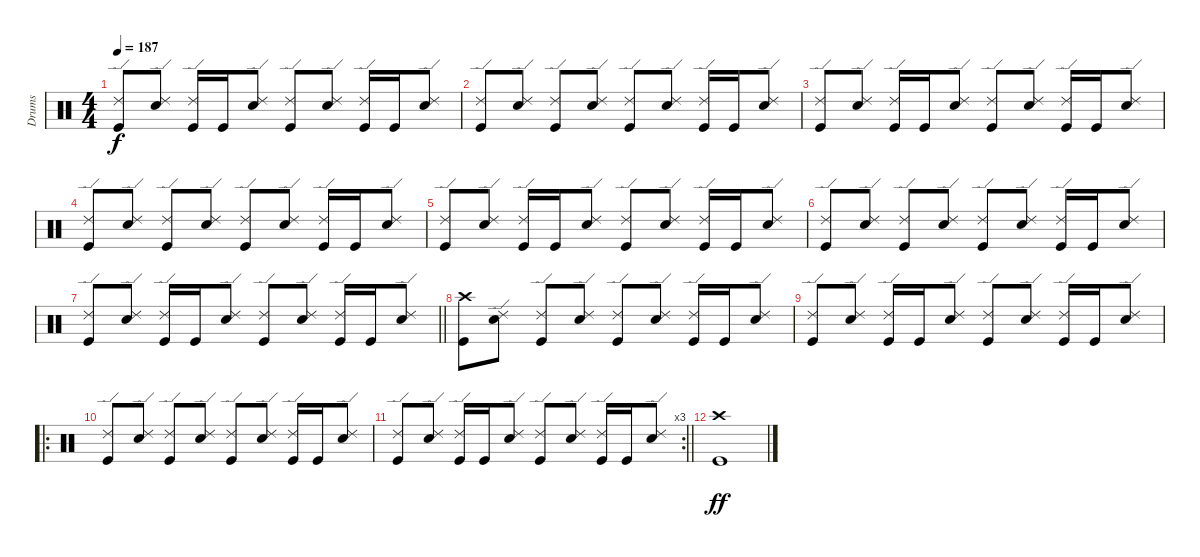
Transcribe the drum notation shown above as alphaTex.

\track ("Drums" "Drums") {instrument percussion}
\staff {score}
\articulation defaults
\ts (4 4)
\tempo 187
\clef neutral
\ks c
("Ride (edge) 2" "Kick (hit)").8{dy f} ("Ride (edge) 2" "Snare (hit) 2").8 ("Ride (edge) 2" "Kick (hit)").16 "Kick (hit)".16 ("Ride (edge) 2" "Snare (hit) 2").8 ("Ride (edge) 2" "Kick (hit)").8 ("Ride (edge) 2" "Snare (hit) 2").8 ("Ride (edge) 2" "Kick (hit)").16 "Kick (hit)".16 ("Ride (edge) 2" "Snare (hit) 2").8 |
("Ride (edge) 2" "Kick (hit)").8 ("Ride (edge) 2" "Snare (hit) 2").8 ("Ride (edge) 2" "Kick (hit)").8 ("Ride (edge) 2" "Snare (hit) 2").8 ("Ride (edge) 2" "Kick (hit)").8 ("Ride (edge) 2" "Snare (hit) 2").8 ("Ride (edge) 2" "Kick (hit)").16 "Kick (hit)".16 ("Ride (edge) 2" "Snare (hit) 2").8 |
("Ride (edge) 2" "Kick (hit)").8 ("Ride (edge) 2" "Snare (hit) 2").8 ("Ride (edge) 2" "Kick (hit)").16 "Kick (hit)".16 ("Ride (edge) 2" "Snare (hit) 2").8 ("Ride (edge) 2" "Kick (hit)").8 ("Ride (edge) 2" "Snare (hit) 2").8 ("Ride (edge) 2" "Kick (hit)").16 "Kick (hit)".16 ("Ride (edge) 2" "Snare (hit) 2").8 |
("Ride (edge) 2" "Kick (hit)").8 ("Ride (edge) 2" "Snare (hit) 2").8 ("Ride (edge) 2" "Kick (hit)").8 ("Ride (edge) 2" "Snare (hit) 2").8 ("Ride (edge) 2" "Kick (hit)").8 ("Ride (edge) 2" "Snare (hit) 2").8 ("Ride (edge) 2" "Kick (hit)").16 "Kick (hit)".16 ("Ride (edge) 2" "Snare (hit) 2").8 |
("Ride (edge) 2" "Kick (hit)").8 ("Ride (edge) 2" "Snare (hit) 2").8 ("Ride (edge) 2" "Kick (hit)").16 "Kick (hit)".16 ("Ride (edge) 2" "Snare (hit) 2").8 ("Ride (edge) 2" "Kick (hit)").8 ("Ride (edge) 2" "Snare (hit) 2").8 ("Ride (edge) 2" "Kick (hit)").16 "Kick (hit)".16 ("Ride (edge) 2" "Snare (hit) 2").8 |
("Ride (edge) 2" "Kick (hit)").8 ("Ride (edge) 2" "Snare (hit) 2").8 ("Ride (edge) 2" "Kick (hit)").8 ("Ride (edge) 2" "Snare (hit) 2").8 ("Ride (edge) 2" "Kick (hit)").8 ("Ride (edge) 2" "Snare (hit) 2").8 ("Ride (edge) 2" "Kick (hit)").16 "Kick (hit)".16 ("Ride (edge) 2" "Snare (hit) 2").8 |
\barLineRight lightlight
("Ride (edge) 2" "Kick (hit)").8 ("Ride (edge) 2" "Snare (hit) 2").8 ("Ride (edge) 2" "Kick (hit)").16 "Kick (hit)".16 ("Ride (edge) 2" "Snare (hit) 2").8 ("Ride (edge) 2" "Kick (hit)").8 ("Ride (edge) 2" "Snare (hit) 2").8 ("Ride (edge) 2" "Kick (hit)").16 "Kick (hit)".16 ("Ride (edge) 2" "Snare (hit) 2").8 |
("Crash high (hit)" "Kick (hit)").8 ("Ride (edge) 2" "Snare (hit) 2").8 ("Ride (edge) 2" "Kick (hit)").8 ("Ride (edge) 2" "Snare (hit) 2").8 ("Ride (edge) 2" "Kick (hit)").8 ("Ride (edge) 2" "Snare (hit) 2").8 ("Ride (edge) 2" "Kick (hit)").16 "Kick (hit)".16 ("Ride (edge) 2" "Snare (hit) 2").8 |
("Ride (edge) 2" "Kick (hit)").8 ("Ride (edge) 2" "Snare (hit) 2").8 ("Ride (edge) 2" "Kick (hit)").16 "Kick (hit)".16 ("Ride (edge) 2" "Snare (hit) 2").8 ("Ride (edge) 2" "Kick (hit)").8 ("Ride (edge) 2" "Snare (hit) 2").8 ("Ride (edge) 2" "Kick (hit)").16 "Kick (hit)".16 ("Ride (edge) 2" "Snare (hit) 2").8 |
\ro
("Ride (edge) 2" "Kick (hit)").8 ("Ride (edge) 2" "Snare (hit) 2").8 ("Ride (edge) 2" "Kick (hit)").8 ("Ride (edge) 2" "Snare (hit) 2").8 ("Ride (edge) 2" "Kick (hit)").8 ("Ride (edge) 2" "Snare (hit) 2").8 ("Ride (edge) 2" "Kick (hit)").16 "Kick (hit)".16 ("Ride (edge) 2" "Snare (hit) 2").8 |
\rc 3
\barLineRight lightlight
("Ride (edge) 2" "Kick (hit)").8 ("Ride (edge) 2" "Snare (hit) 2").8 ("Ride (edge) 2" "Kick (hit)").16 "Kick (hit)".16 ("Ride (edge) 2" "Snare (hit) 2").8 ("Ride (edge) 2" "Kick (hit)").8 ("Ride (edge) 2" "Snare (hit) 2").8 ("Ride (edge) 2" "Kick (hit)").16 "Kick (hit)".16 ("Ride (edge) 2" "Snare (hit) 2").8 |
("Crash high (hit)" "Kick (hit)").1{dy ff}
